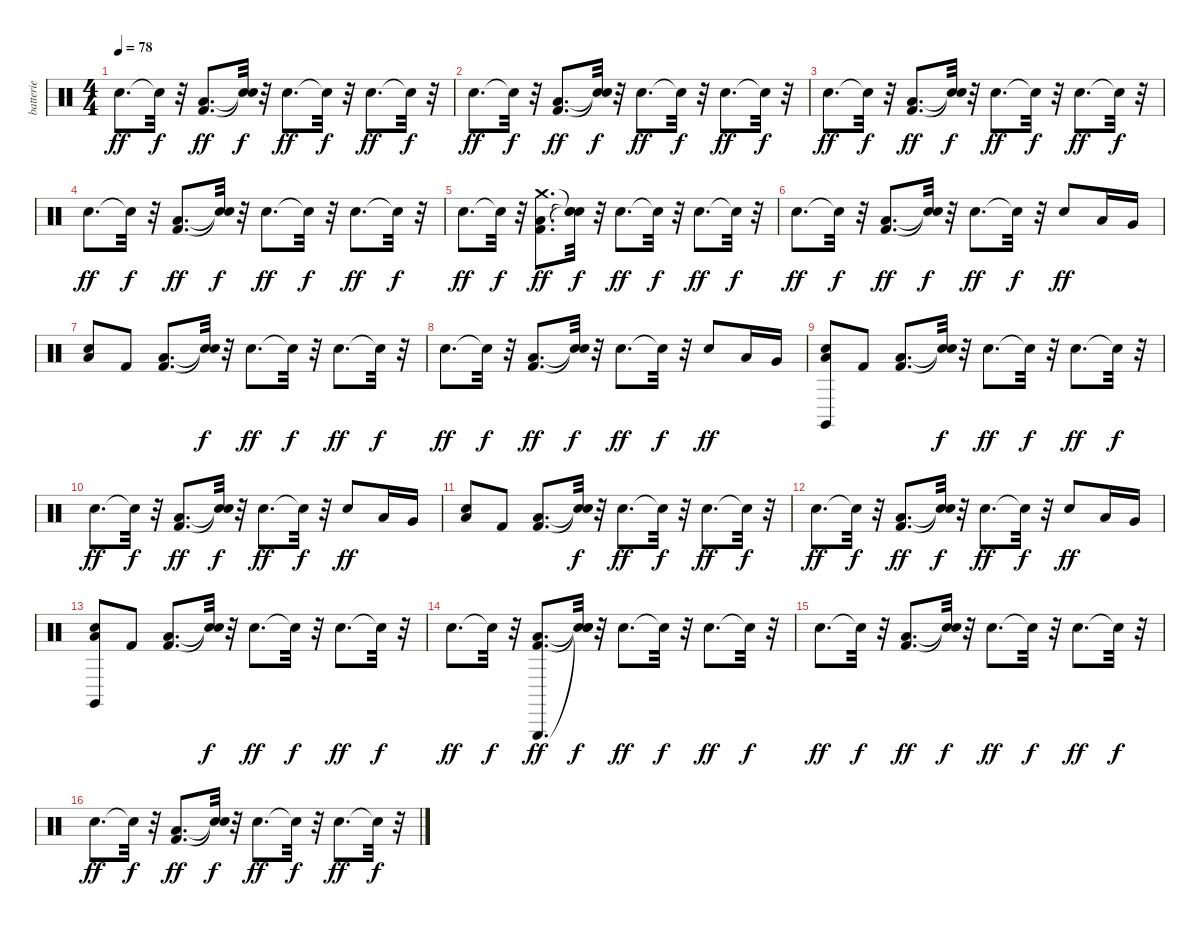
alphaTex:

\track ("batterie" "batterie") {instrument percussion}
\staff {score}
\articulation defaults
\ts (4 4)
\tempo 78
\clef neutral
\ks c "Hand Clap (hit)".8{d dy ff} "Snare (hit)"{t}.32{dy f}
r.32 ("Kick (hit) 2" "Low Floor Tom (hit)").8{d dy ff} ("Snare (hit)"{t} "Snare (hit)"{t}).32{dy f} r.32 "Hand Clap (hit)".8{d dy ff} "Snare (hit)"{t}.32{dy f} r.32 "Hand Clap (hit)".8{d dy ff} "Snare (hit)"{t}.32{dy f} r.32 |
"Hand Clap (hit)".8{d dy ff} "Snare (hit)"{t}.32{dy f} r.32 ("Kick (hit) 2" "Low Floor Tom (hit)").8{d dy ff} ("Snare (hit)"{t} "Snare (hit)"{t}).32{dy f} r.32 "Hand Clap (hit)".8{d dy ff} "Snare (hit)"{t}.32{dy f} r.32 "Hand Clap (hit)".8{d dy ff} "Snare (hit)"{t}.32{dy f} r.32 |
"Hand Clap (hit)".8{d dy ff} "Snare (hit)"{t}.32{dy f} r.32 ("Kick (hit) 2" "Low Floor Tom (hit)").8{d dy ff} ("Snare (hit)"{t} "Snare (hit)"{t}).32{dy f} r.32 "Hand Clap (hit)".8{d dy ff} "Snare (hit)"{t}.32{dy f} r.32 "Hand Clap (hit)".8{d dy ff} "Snare (hit)"{t}.32{dy f} r.32 |
"Hand Clap (hit)".8{d dy ff} "Snare (hit)"{t}.32{dy f} r.32 ("Kick (hit) 2" "Low Floor Tom (hit)").8{d dy ff} ("Snare (hit)"{t} "Snare (hit)"{t}).32{dy f} r.32 "Hand Clap (hit)".8{d dy ff} "Snare (hit)"{t}.32{dy f} r.32 "Hand Clap (hit)".8{d dy ff} "Snare (hit)"{t}.32{dy f} r.32 |
"Hand Clap (hit)".8{d dy ff} "Snare (hit)"{t}.32{dy f} r.32 ("Kick (hit) 2" "Low Floor Tom (hit)" "Crash medium (hit)").8{d dy ff} ("Snare (hit)"{t} "Snare (hit)"{t} "Snare (hit)"{t}).32{dy f} r.32 "Hand Clap (hit)".8{d dy ff} "Snare (hit)"{t}.32{dy f} r.32 "Hand Clap (hit)".8{d dy ff} "Snare (hit)"{t}.32{dy f} r.32 |
"Hand Clap (hit)".8{d dy ff} "Snare (hit)"{t}.32{dy f} r.32 ("Kick (hit) 2" "Low Floor Tom (hit)").8{d dy ff} ("Snare (hit)"{t} "Snare (hit)"{t}).32{dy f} r.32 "Hand Clap (hit)".8{d dy ff} "Snare (hit)"{t}.32{dy f} r.32 "Hand Clap (hit)".8{dy ff} "Low Tom (hit)".16 "Very Low Tom (hit)".16 |
("Hand Clap (hit)" "Low Floor Tom (hit)").8 "Kick (hit) 2".8 ("Kick (hit) 2" "Low Floor Tom (hit)").8{d} ("Snare (hit)"{t} "Snare (hit)"{t}).32{dy f} r.32 "Hand Clap (hit)".8{d dy ff} "Snare (hit)"{t}.32{dy f} r.32 "Hand Clap (hit)".8{d dy ff} "Snare (hit)"{t}.32{dy f} r.32 |
"Hand Clap (hit)".8{d dy ff} "Snare (hit)"{t}.32{dy f} r.32 ("Kick (hit) 2" "Low Floor Tom (hit)").8{d dy ff} ("Snare (hit)"{t} "Snare (hit)"{t}).32{dy f} r.32 "Hand Clap (hit)".8{d dy ff} "Snare (hit)"{t}.32{dy f} r.32 "Hand Clap (hit)".8{dy ff} "Low Tom (hit)".16 "Very Low Tom (hit)".16 |
("Hand Clap (hit)" "Low Floor Tom (hit)" "Claves (hit)").8 "Kick (hit) 2".8 ("Kick (hit) 2" "Low Floor Tom (hit)").8{d} ("Snare (hit)"{t} "Snare (hit)"{t}).32{dy f} r.32 "Hand Clap (hit)".8{d dy ff} "Snare (hit)"{t}.32{dy f} r.32 "Hand Clap (hit)".8{d dy ff} "Snare (hit)"{t}.32{dy f} r.32 |
"Hand Clap (hit)".8{d dy ff} "Snare (hit)"{t}.32{dy f} r.32 ("Kick (hit) 2" "Low Floor Tom (hit)").8{d dy ff} ("Snare (hit)"{t} "Snare (hit)"{t}).32{dy f} r.32 "Hand Clap (hit)".8{d dy ff} "Snare (hit)"{t}.32{dy f} r.32 "Hand Clap (hit)".8{dy ff} "Low Tom (hit)".16 "Very Low Tom (hit)".16 |
("Hand Clap (hit)" "Low Floor Tom (hit)").8 "Kick (hit) 2".8 ("Kick (hit) 2" "Low Floor Tom (hit)").8{d} ("Snare (hit)"{t} "Snare (hit)"{t}).32{dy f} r.32 "Hand Clap (hit)".8{d dy ff} "Snare (hit)"{t}.32{dy f} r.32 "Hand Clap (hit)".8{d dy ff} "Snare (hit)"{t}.32{dy f} r.32 |
"Hand Clap (hit)".8{d dy ff} "Snare (hit)"{t}.32{dy f} r.32 ("Kick (hit) 2" "Low Floor Tom (hit)").8{d dy ff} ("Snare (hit)"{t} "Snare (hit)"{t}).32{dy f} r.32 "Hand Clap (hit)".8{d dy ff} "Snare (hit)"{t}.32{dy f} r.32 "Hand Clap (hit)".8{dy ff} "Low Tom (hit)".16 "Very Low Tom (hit)".16 |
("Hand Clap (hit)" "Low Floor Tom (hit)" "Claves (hit)").8 "Kick (hit) 2".8 ("Kick (hit) 2" "Low Floor Tom (hit)").8{d} ("Snare (hit)"{t} "Snare (hit)"{t}).32{dy f} r.32 "Hand Clap (hit)".8{d dy ff} "Snare (hit)"{t}.32{dy f} r.32 "Hand Clap (hit)".8{d dy ff} "Snare (hit)"{t}.32{dy f} r.32 |
"Hand Clap (hit)".8{d dy ff} "Snare (hit)"{t}.32{dy f} r.32 ("Kick (hit) 2" "Low Floor Tom (hit)" "Triangle (hit)").8{d dy ff} ("Snare (hit)"{t} "Snare (hit)"{t} "Snare (hit)"{t}).32{dy f} r.32 "Hand Clap (hit)".8{d dy ff} "Snare (hit)"{t}.32{dy f} r.32 "Hand Clap (hit)".8{d dy ff} "Snare (hit)"{t}.32{dy f} r.32 |
"Hand Clap (hit)".8{d dy ff} "Snare (hit)"{t}.32{dy f} r.32 ("Kick (hit) 2" "Low Floor Tom (hit)").8{d dy ff} ("Snare (hit)"{t} "Snare (hit)"{t}).32{dy f} r.32 "Hand Clap (hit)".8{d dy ff} "Snare (hit)"{t}.32{dy f} r.32 "Hand Clap (hit)".8{d dy ff} "Snare (hit)"{t}.32{dy f} r.32 |
"Hand Clap (hit)".8{d dy ff} "Snare (hit)"{t}.32{dy f} r.32 ("Kick (hit) 2" "Low Floor Tom (hit)").8{d dy ff} ("Snare (hit)"{t} "Snare (hit)"{t}).32{dy f} r.32 "Hand Clap (hit)".8{d dy ff} "Snare (hit)"{t}.32{dy f} r.32 "Hand Clap (hit)".8{d dy ff} "Snare (hit)"{t}.32{dy f} r.32
